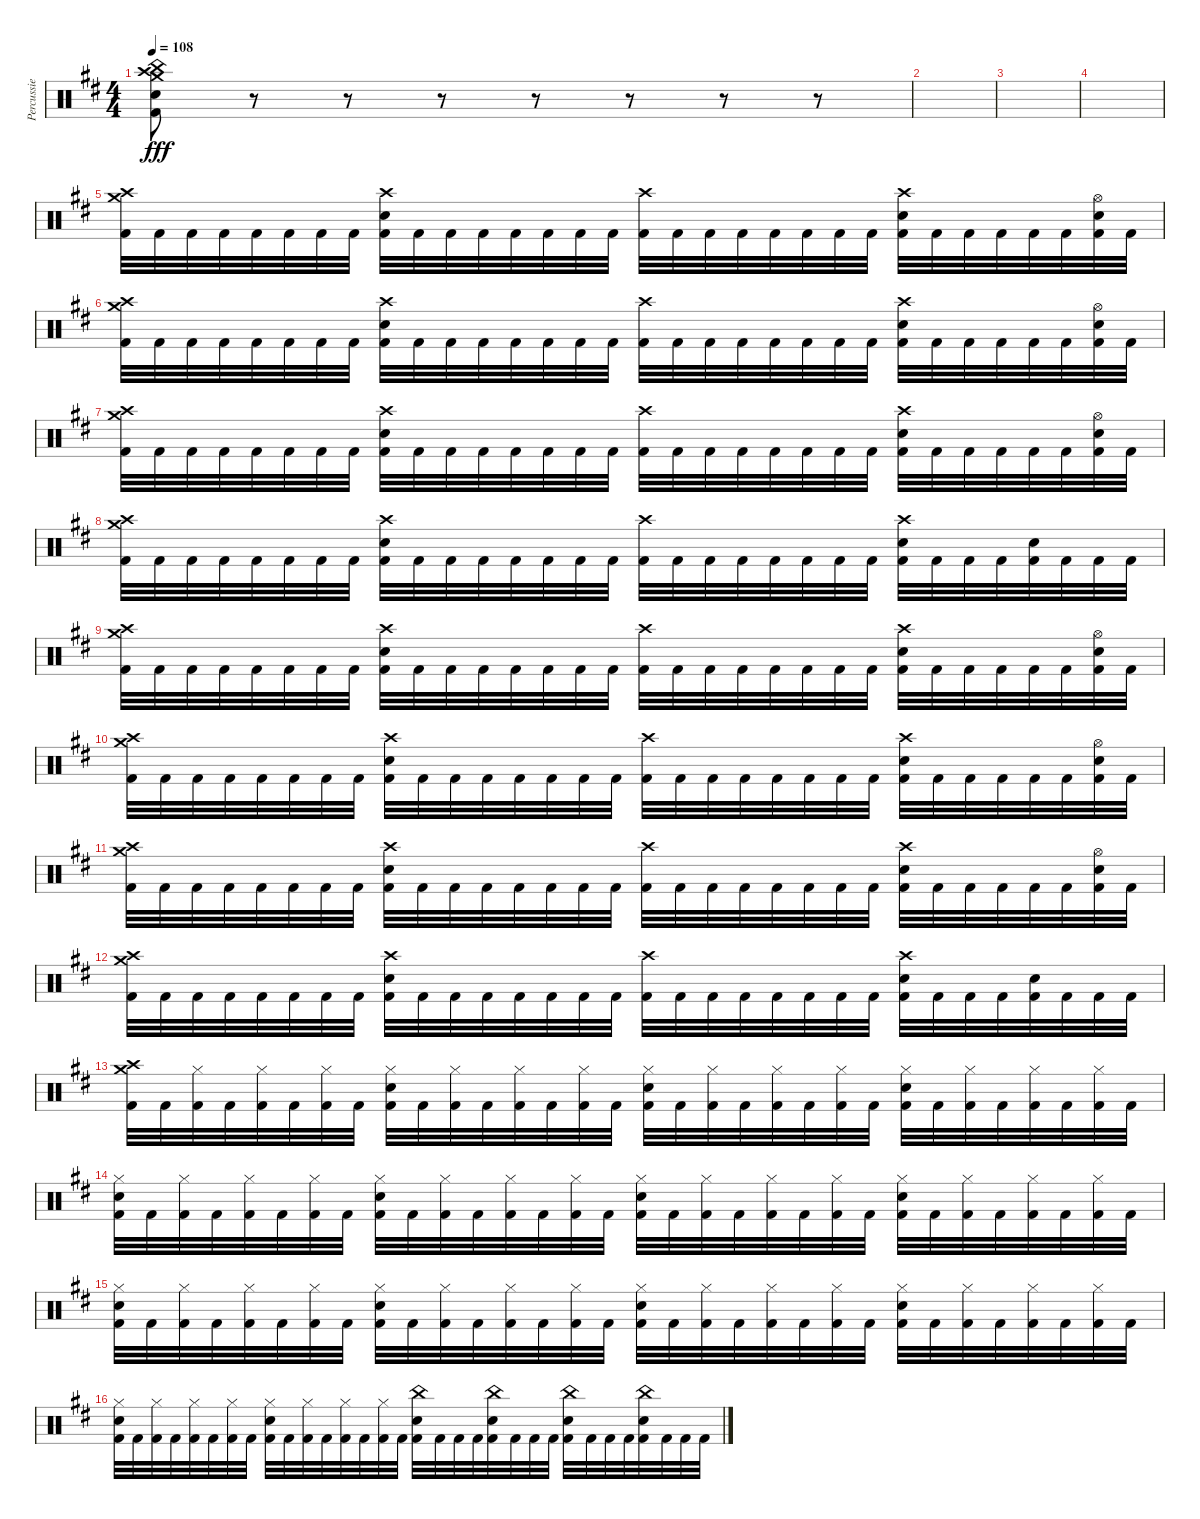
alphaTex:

\track ("Percussie" "Percussie") {instrument percussion}
\staff {score}
\articulation defaults
\ts (4 4)
\tempo 108
\clef neutral
\ks d
("Crash medium (hit)" "Crash high (hit)" "China (hit)" "Snare (hit) 2" "Kick (hit) 2").8{dy fff} r.8 r.8 r.8 r.8 r.8 r.8 r.8 |
|
|
|
("Crash high (hit)" "Crash medium (hit)" "Kick (hit) 2").32 "Kick (hit) 2".32 "Kick (hit) 2".32 "Kick (hit) 2".32 "Kick (hit) 2".32 "Kick (hit) 2".32 "Kick (hit) 2".32 "Kick (hit) 2".32 ("Crash high (hit)" "Snare (hit) 2" "Kick (hit) 2").32 "Kick (hit) 2".32 "Kick (hit) 2".32 "Kick (hit) 2".32 "Kick (hit) 2".32 "Kick (hit) 2".32 "Kick (hit) 2".32 "Kick (hit) 2".32 ("Crash high (hit)" "Kick (hit) 2").32 "Kick (hit) 2".32 "Kick (hit) 2".32 "Kick (hit) 2".32 "Kick (hit) 2".32 "Kick (hit) 2".32 "Kick (hit) 2".32 "Kick (hit) 2".32 ("Crash high (hit)" "Snare (hit) 2" "Kick (hit) 2").32 "Kick (hit) 2".32 "Kick (hit) 2".32 "Kick (hit) 2".32 "Kick (hit) 2".32 "Kick (hit) 2".32 ("Hi-Hat (open)" "Snare (hit) 2" "Kick (hit) 2").32 "Kick (hit) 2".32 |
("Crash high (hit)" "Crash medium (hit)" "Kick (hit) 2").32 "Kick (hit) 2".32 "Kick (hit) 2".32 "Kick (hit) 2".32 "Kick (hit) 2".32 "Kick (hit) 2".32 "Kick (hit) 2".32 "Kick (hit) 2".32 ("Crash high (hit)" "Snare (hit) 2" "Kick (hit) 2").32 "Kick (hit) 2".32 "Kick (hit) 2".32 "Kick (hit) 2".32 "Kick (hit) 2".32 "Kick (hit) 2".32 "Kick (hit) 2".32 "Kick (hit) 2".32 ("Crash high (hit)" "Kick (hit) 2").32 "Kick (hit) 2".32 "Kick (hit) 2".32 "Kick (hit) 2".32 "Kick (hit) 2".32 "Kick (hit) 2".32 "Kick (hit) 2".32 "Kick (hit) 2".32 ("Crash high (hit)" "Snare (hit) 2" "Kick (hit) 2").32 "Kick (hit) 2".32 "Kick (hit) 2".32 "Kick (hit) 2".32 "Kick (hit) 2".32 "Kick (hit) 2".32 ("Hi-Hat (open)" "Snare (hit) 2" "Kick (hit) 2").32 "Kick (hit) 2".32 |
("Crash high (hit)" "Crash medium (hit)" "Kick (hit) 2").32 "Kick (hit) 2".32 "Kick (hit) 2".32 "Kick (hit) 2".32 "Kick (hit) 2".32 "Kick (hit) 2".32 "Kick (hit) 2".32 "Kick (hit) 2".32 ("Crash high (hit)" "Snare (hit) 2" "Kick (hit) 2").32 "Kick (hit) 2".32 "Kick (hit) 2".32 "Kick (hit) 2".32 "Kick (hit) 2".32 "Kick (hit) 2".32 "Kick (hit) 2".32 "Kick (hit) 2".32 ("Crash high (hit)" "Kick (hit) 2").32 "Kick (hit) 2".32 "Kick (hit) 2".32 "Kick (hit) 2".32 "Kick (hit) 2".32 "Kick (hit) 2".32 "Kick (hit) 2".32 "Kick (hit) 2".32 ("Crash high (hit)" "Snare (hit) 2" "Kick (hit) 2").32 "Kick (hit) 2".32 "Kick (hit) 2".32 "Kick (hit) 2".32 "Kick (hit) 2".32 "Kick (hit) 2".32 ("Hi-Hat (open)" "Snare (hit) 2" "Kick (hit) 2").32 "Kick (hit) 2".32 |
("Crash high (hit)" "Crash medium (hit)" "Kick (hit) 2").32 "Kick (hit) 2".32 "Kick (hit) 2".32 "Kick (hit) 2".32 "Kick (hit) 2".32 "Kick (hit) 2".32 "Kick (hit) 2".32 "Kick (hit) 2".32 ("Crash high (hit)" "Snare (hit) 2" "Kick (hit) 2").32 "Kick (hit) 2".32 "Kick (hit) 2".32 "Kick (hit) 2".32 "Kick (hit) 2".32 "Kick (hit) 2".32 "Kick (hit) 2".32 "Kick (hit) 2".32 ("Crash high (hit)" "Kick (hit) 2").32 "Kick (hit) 2".32 "Kick (hit) 2".32 "Kick (hit) 2".32 "Kick (hit) 2".32 "Kick (hit) 2".32 "Kick (hit) 2".32 "Kick (hit) 2".32 ("Crash high (hit)" "Snare (hit) 2" "Kick (hit) 2").32 "Kick (hit) 2".32 "Kick (hit) 2".32 "Kick (hit) 2".32 ("Snare (hit) 2" "Kick (hit) 2").32 "Kick (hit) 2".32 "Kick (hit) 2".32 "Kick (hit) 2".32 |
("Crash high (hit)" "Crash medium (hit)" "Kick (hit) 2").32 "Kick (hit) 2".32 "Kick (hit) 2".32 "Kick (hit) 2".32 "Kick (hit) 2".32 "Kick (hit) 2".32 "Kick (hit) 2".32 "Kick (hit) 2".32 ("Crash high (hit)" "Snare (hit) 2" "Kick (hit) 2").32 "Kick (hit) 2".32 "Kick (hit) 2".32 "Kick (hit) 2".32 "Kick (hit) 2".32 "Kick (hit) 2".32 "Kick (hit) 2".32 "Kick (hit) 2".32 ("Crash high (hit)" "Kick (hit) 2").32 "Kick (hit) 2".32 "Kick (hit) 2".32 "Kick (hit) 2".32 "Kick (hit) 2".32 "Kick (hit) 2".32 "Kick (hit) 2".32 "Kick (hit) 2".32 ("Crash high (hit)" "Snare (hit) 2" "Kick (hit) 2").32 "Kick (hit) 2".32 "Kick (hit) 2".32 "Kick (hit) 2".32 "Kick (hit) 2".32 "Kick (hit) 2".32 ("Hi-Hat (open)" "Snare (hit) 2" "Kick (hit) 2").32 "Kick (hit) 2".32 |
("Crash high (hit)" "Crash medium (hit)" "Kick (hit) 2").32 "Kick (hit) 2".32 "Kick (hit) 2".32 "Kick (hit) 2".32 "Kick (hit) 2".32 "Kick (hit) 2".32 "Kick (hit) 2".32 "Kick (hit) 2".32 ("Crash high (hit)" "Snare (hit) 2" "Kick (hit) 2").32 "Kick (hit) 2".32 "Kick (hit) 2".32 "Kick (hit) 2".32 "Kick (hit) 2".32 "Kick (hit) 2".32 "Kick (hit) 2".32 "Kick (hit) 2".32 ("Crash high (hit)" "Kick (hit) 2").32 "Kick (hit) 2".32 "Kick (hit) 2".32 "Kick (hit) 2".32 "Kick (hit) 2".32 "Kick (hit) 2".32 "Kick (hit) 2".32 "Kick (hit) 2".32 ("Crash high (hit)" "Snare (hit) 2" "Kick (hit) 2").32 "Kick (hit) 2".32 "Kick (hit) 2".32 "Kick (hit) 2".32 "Kick (hit) 2".32 "Kick (hit) 2".32 ("Hi-Hat (open)" "Snare (hit) 2" "Kick (hit) 2").32 "Kick (hit) 2".32 |
("Crash high (hit)" "Crash medium (hit)" "Kick (hit) 2").32 "Kick (hit) 2".32 "Kick (hit) 2".32 "Kick (hit) 2".32 "Kick (hit) 2".32 "Kick (hit) 2".32 "Kick (hit) 2".32 "Kick (hit) 2".32 ("Crash high (hit)" "Snare (hit) 2" "Kick (hit) 2").32 "Kick (hit) 2".32 "Kick (hit) 2".32 "Kick (hit) 2".32 "Kick (hit) 2".32 "Kick (hit) 2".32 "Kick (hit) 2".32 "Kick (hit) 2".32 ("Crash high (hit)" "Kick (hit) 2").32 "Kick (hit) 2".32 "Kick (hit) 2".32 "Kick (hit) 2".32 "Kick (hit) 2".32 "Kick (hit) 2".32 "Kick (hit) 2".32 "Kick (hit) 2".32 ("Crash high (hit)" "Snare (hit) 2" "Kick (hit) 2").32 "Kick (hit) 2".32 "Kick (hit) 2".32 "Kick (hit) 2".32 "Kick (hit) 2".32 "Kick (hit) 2".32 ("Hi-Hat (open)" "Snare (hit) 2" "Kick (hit) 2").32 "Kick (hit) 2".32 |
("Crash high (hit)" "Crash medium (hit)" "Kick (hit) 2").32 "Kick (hit) 2".32 "Kick (hit) 2".32 "Kick (hit) 2".32 "Kick (hit) 2".32 "Kick (hit) 2".32 "Kick (hit) 2".32 "Kick (hit) 2".32 ("Crash high (hit)" "Snare (hit) 2" "Kick (hit) 2").32 "Kick (hit) 2".32 "Kick (hit) 2".32 "Kick (hit) 2".32 "Kick (hit) 2".32 "Kick (hit) 2".32 "Kick (hit) 2".32 "Kick (hit) 2".32 ("Crash high (hit)" "Kick (hit) 2").32 "Kick (hit) 2".32 "Kick (hit) 2".32 "Kick (hit) 2".32 "Kick (hit) 2".32 "Kick (hit) 2".32 "Kick (hit) 2".32 "Kick (hit) 2".32 ("Crash high (hit)" "Snare (hit) 2" "Kick (hit) 2").32 "Kick (hit) 2".32 "Kick (hit) 2".32 "Kick (hit) 2".32 ("Snare (hit) 2" "Kick (hit) 2").32 "Kick (hit) 2".32 "Kick (hit) 2".32 "Kick (hit) 2".32 |
("Crash high (hit)" "Crash medium (hit)" "Kick (hit) 2").32 "Kick (hit) 2".32 ("Hi-Hat (closed)" "Kick (hit) 2").32 "Kick (hit) 2".32 ("Hi-Hat (closed)" "Kick (hit) 2").32 "Kick (hit) 2".32 ("Hi-Hat (closed)" "Kick (hit) 2").32 "Kick (hit) 2".32 ("Hi-Hat (closed)" "Snare (hit) 2" "Kick (hit) 2").32 "Kick (hit) 2".32 ("Hi-Hat (closed)" "Kick (hit) 2").32 "Kick (hit) 2".32 ("Hi-Hat (closed)" "Kick (hit) 2").32 "Kick (hit) 2".32 ("Hi-Hat (closed)" "Kick (hit) 2").32 "Kick (hit) 2".32 ("Hi-Hat (closed)" "Snare (hit) 2" "Kick (hit) 2").32 "Kick (hit) 2".32 ("Hi-Hat (closed)" "Kick (hit) 2").32 "Kick (hit) 2".32 ("Hi-Hat (closed)" "Kick (hit) 2").32 "Kick (hit) 2".32 ("Hi-Hat (closed)" "Kick (hit) 2").32 "Kick (hit) 2".32 ("Hi-Hat (closed)" "Snare (hit) 2" "Kick (hit) 2").32 "Kick (hit) 2".32 ("Hi-Hat (closed)" "Kick (hit) 2").32 "Kick (hit) 2".32 ("Hi-Hat (closed)" "Kick (hit) 2").32 "Kick (hit) 2".32 ("Hi-Hat (closed)" "Kick (hit) 2").32 "Kick (hit) 2".32 |
("Hi-Hat (closed)" "Snare (hit) 2" "Kick (hit) 2").32 "Kick (hit) 2".32 ("Hi-Hat (closed)" "Kick (hit) 2").32 "Kick (hit) 2".32 ("Hi-Hat (closed)" "Kick (hit) 2").32 "Kick (hit) 2".32 ("Hi-Hat (closed)" "Kick (hit) 2").32 "Kick (hit) 2".32 ("Hi-Hat (closed)" "Snare (hit) 2" "Kick (hit) 2").32 "Kick (hit) 2".32 ("Hi-Hat (closed)" "Kick (hit) 2").32 "Kick (hit) 2".32 ("Hi-Hat (closed)" "Kick (hit) 2").32 "Kick (hit) 2".32 ("Hi-Hat (closed)" "Kick (hit) 2").32 "Kick (hit) 2".32 ("Hi-Hat (closed)" "Snare (hit) 2" "Kick (hit) 2").32 "Kick (hit) 2".32 ("Hi-Hat (closed)" "Kick (hit) 2").32 "Kick (hit) 2".32 ("Hi-Hat (closed)" "Kick (hit) 2").32 "Kick (hit) 2".32 ("Hi-Hat (closed)" "Kick (hit) 2").32 "Kick (hit) 2".32 ("Hi-Hat (closed)" "Snare (hit) 2" "Kick (hit) 2").32 "Kick (hit) 2".32 ("Hi-Hat (closed)" "Kick (hit) 2").32 "Kick (hit) 2".32 ("Hi-Hat (closed)" "Kick (hit) 2").32 "Kick (hit) 2".32 ("Hi-Hat (closed)" "Kick (hit) 2").32 "Kick (hit) 2".32 |
("Hi-Hat (closed)" "Snare (hit) 2" "Kick (hit) 2").32 "Kick (hit) 2".32 ("Hi-Hat (closed)" "Kick (hit) 2").32 "Kick (hit) 2".32 ("Hi-Hat (closed)" "Kick (hit) 2").32 "Kick (hit) 2".32 ("Hi-Hat (closed)" "Kick (hit) 2").32 "Kick (hit) 2".32 ("Hi-Hat (closed)" "Snare (hit) 2" "Kick (hit) 2").32 "Kick (hit) 2".32 ("Hi-Hat (closed)" "Kick (hit) 2").32 "Kick (hit) 2".32 ("Hi-Hat (closed)" "Kick (hit) 2").32 "Kick (hit) 2".32 ("Hi-Hat (closed)" "Kick (hit) 2").32 "Kick (hit) 2".32 ("Hi-Hat (closed)" "Snare (hit) 2" "Kick (hit) 2").32 "Kick (hit) 2".32 ("Hi-Hat (closed)" "Kick (hit) 2").32 "Kick (hit) 2".32 ("Hi-Hat (closed)" "Kick (hit) 2").32 "Kick (hit) 2".32 ("Hi-Hat (closed)" "Kick (hit) 2").32 "Kick (hit) 2".32 ("Hi-Hat (closed)" "Snare (hit) 2" "Kick (hit) 2").32 "Kick (hit) 2".32 ("Hi-Hat (closed)" "Kick (hit) 2").32 "Kick (hit) 2".32 ("Hi-Hat (closed)" "Kick (hit) 2").32 "Kick (hit) 2".32 ("Hi-Hat (closed)" "Kick (hit) 2").32 "Kick (hit) 2".32 |
("Hi-Hat (closed)" "Snare (hit) 2" "Kick (hit) 2").32 "Kick (hit) 2".32 ("Hi-Hat (closed)" "Kick (hit) 2").32 "Kick (hit) 2".32 ("Hi-Hat (closed)" "Kick (hit) 2").32 "Kick (hit) 2".32 ("Hi-Hat (closed)" "Kick (hit) 2").32 "Kick (hit) 2".32 ("Hi-Hat (closed)" "Snare (hit) 2" "Kick (hit) 2").32 "Kick (hit) 2".32 ("Hi-Hat (closed)" "Kick (hit) 2").32 "Kick (hit) 2".32 ("Hi-Hat (closed)" "Kick (hit) 2").32 "Kick (hit) 2".32 ("Hi-Hat (closed)" "Kick (hit) 2").32 "Kick (hit) 2".32 ("China (hit)" "Snare (hit) 2" "Kick (hit) 2").32 "Kick (hit) 2".32 "Kick (hit) 2".32 "Kick (hit) 2".32 ("China (hit)" "Snare (hit) 2" "Kick (hit) 2").32 "Kick (hit) 2".32 "Kick (hit) 2".32 "Kick (hit) 2".32 ("China (hit)" "Snare (hit) 2" "Kick (hit) 2").32 "Kick (hit) 2".32 "Kick (hit) 2".32 "Kick (hit) 2".32 ("China (hit)" "Snare (hit) 2" "Kick (hit) 2").32 "Kick (hit) 2".32 "Kick (hit) 2".32 "Kick (hit) 2".32
